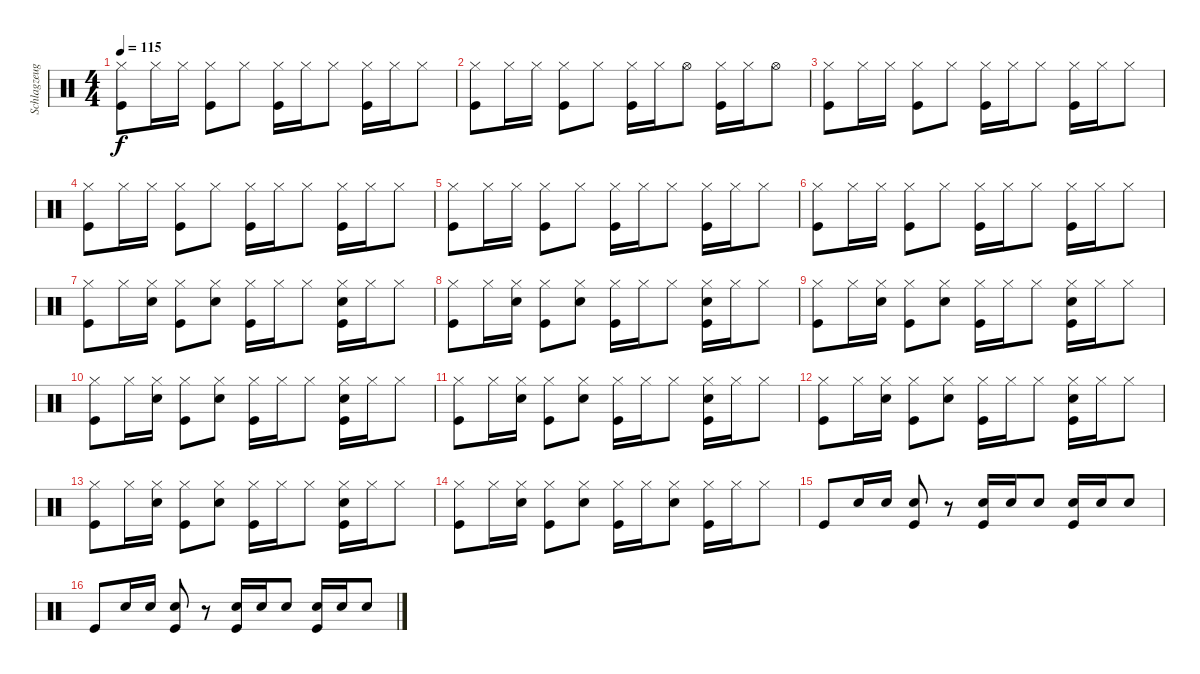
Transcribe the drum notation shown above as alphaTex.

\track ("Schlagzeug" "Schlagzeug") {instrument percussion}
\staff {score}
\articulation defaults
\ts (4 4)
\tempo 115
\clef neutral
\ks c
("Kick (hit)" "Hi-Hat (closed)").8{dy f} "Hi-Hat (closed)".16 "Hi-Hat (closed)".16 ("Kick (hit)" "Hi-Hat (closed)").8 "Hi-Hat (closed)".8 ("Kick (hit)" "Hi-Hat (closed)").16 "Hi-Hat (closed)".16 "Hi-Hat (closed)".8 ("Kick (hit)" "Hi-Hat (closed)").16 "Hi-Hat (closed)".16 "Hi-Hat (closed)".8 |
("Kick (hit)" "Hi-Hat (closed)").8 "Hi-Hat (closed)".16 "Hi-Hat (closed)".16 ("Kick (hit)" "Hi-Hat (closed)").8 "Hi-Hat (closed)".8 ("Kick (hit)" "Hi-Hat (closed)").16 "Hi-Hat (closed)".16 "Hi-Hat (open)".8 ("Kick (hit)" "Hi-Hat (closed)").16 "Hi-Hat (closed)".16 "Hi-Hat (open)".8 |
("Kick (hit)" "Hi-Hat (closed)").8 "Hi-Hat (closed)".16 "Hi-Hat (closed)".16 ("Kick (hit)" "Hi-Hat (closed)").8 "Hi-Hat (closed)".8 ("Kick (hit)" "Hi-Hat (closed)").16 "Hi-Hat (closed)".16 "Hi-Hat (closed)".8 ("Kick (hit)" "Hi-Hat (closed)").16 "Hi-Hat (closed)".16 "Hi-Hat (closed)".8 |
("Kick (hit)" "Hi-Hat (closed)").8 "Hi-Hat (closed)".16 "Hi-Hat (closed)".16 ("Kick (hit)" "Hi-Hat (closed)").8 "Hi-Hat (closed)".8 ("Kick (hit)" "Hi-Hat (closed)").16 "Hi-Hat (closed)".16 "Hi-Hat (closed)".8 ("Kick (hit)" "Hi-Hat (closed)").16 "Hi-Hat (closed)".16 "Hi-Hat (closed)".8 |
("Kick (hit)" "Hi-Hat (closed)").8 "Hi-Hat (closed)".16 "Hi-Hat (closed)".16 ("Kick (hit)" "Hi-Hat (closed)").8 "Hi-Hat (closed)".8 ("Kick (hit)" "Hi-Hat (closed)").16 "Hi-Hat (closed)".16 "Hi-Hat (closed)".8 ("Kick (hit)" "Hi-Hat (closed)").16 "Hi-Hat (closed)".16 "Hi-Hat (closed)".8 |
("Kick (hit)" "Hi-Hat (closed)").8 "Hi-Hat (closed)".16 "Hi-Hat (closed)".16 ("Kick (hit)" "Hi-Hat (closed)").8 "Hi-Hat (closed)".8 ("Kick (hit)" "Hi-Hat (closed)").16 "Hi-Hat (closed)".16 "Hi-Hat (closed)".8 ("Kick (hit)" "Hi-Hat (closed)").16 "Hi-Hat (closed)".16 "Hi-Hat (closed)".8 |
("Kick (hit)" "Hi-Hat (closed)").8 "Hi-Hat (closed)".16 ("Snare (hit) 2" "Hi-Hat (closed)").16 ("Kick (hit)" "Hi-Hat (closed)").8 ("Snare (hit) 2" "Hi-Hat (closed)").8 ("Kick (hit)" "Hi-Hat (closed)").16 "Hi-Hat (closed)".16 "Hi-Hat (closed)".8 ("Kick (hit)" "Snare (hit) 2" "Hi-Hat (closed)").16 "Hi-Hat (closed)".16 "Hi-Hat (closed)".8 |
("Kick (hit)" "Hi-Hat (closed)").8 "Hi-Hat (closed)".16 ("Snare (hit) 2" "Hi-Hat (closed)").16 ("Kick (hit)" "Hi-Hat (closed)").8 ("Snare (hit) 2" "Hi-Hat (closed)").8 ("Kick (hit)" "Hi-Hat (closed)").16 "Hi-Hat (closed)".16 "Hi-Hat (closed)".8 ("Kick (hit)" "Snare (hit) 2" "Hi-Hat (closed)").16 "Hi-Hat (closed)".16 "Hi-Hat (closed)".8 |
("Kick (hit)" "Hi-Hat (closed)").8 "Hi-Hat (closed)".16 ("Snare (hit) 2" "Hi-Hat (closed)").16 ("Kick (hit)" "Hi-Hat (closed)").8 ("Snare (hit) 2" "Hi-Hat (closed)").8 ("Kick (hit)" "Hi-Hat (closed)").16 "Hi-Hat (closed)".16 "Hi-Hat (closed)".8 ("Kick (hit)" "Snare (hit) 2" "Hi-Hat (closed)").16 "Hi-Hat (closed)".16 "Hi-Hat (closed)".8 |
("Kick (hit)" "Hi-Hat (closed)").8 "Hi-Hat (closed)".16 ("Snare (hit) 2" "Hi-Hat (closed)").16 ("Kick (hit)" "Hi-Hat (closed)").8 ("Snare (hit) 2" "Hi-Hat (closed)").8 ("Kick (hit)" "Hi-Hat (closed)").16 "Hi-Hat (closed)".16 "Hi-Hat (closed)".8 ("Kick (hit)" "Snare (hit) 2" "Hi-Hat (closed)").16 "Hi-Hat (closed)".16 "Hi-Hat (closed)".8 |
("Kick (hit)" "Hi-Hat (closed)").8 "Hi-Hat (closed)".16 ("Snare (hit) 2" "Hi-Hat (closed)").16 ("Kick (hit)" "Hi-Hat (closed)").8 ("Snare (hit) 2" "Hi-Hat (closed)").8 ("Kick (hit)" "Hi-Hat (closed)").16 "Hi-Hat (closed)".16 "Hi-Hat (closed)".8 ("Kick (hit)" "Snare (hit) 2" "Hi-Hat (closed)").16 "Hi-Hat (closed)".16 "Hi-Hat (closed)".8 |
("Kick (hit)" "Hi-Hat (closed)").8 "Hi-Hat (closed)".16 ("Snare (hit) 2" "Hi-Hat (closed)").16 ("Kick (hit)" "Hi-Hat (closed)").8 ("Snare (hit) 2" "Hi-Hat (closed)").8 ("Kick (hit)" "Hi-Hat (closed)").16 "Hi-Hat (closed)".16 "Hi-Hat (closed)".8 ("Kick (hit)" "Snare (hit) 2" "Hi-Hat (closed)").16 "Hi-Hat (closed)".16 "Hi-Hat (closed)".8 |
("Kick (hit)" "Hi-Hat (closed)").8 "Hi-Hat (closed)".16 ("Snare (hit) 2" "Hi-Hat (closed)").16 ("Kick (hit)" "Hi-Hat (closed)").8 ("Snare (hit) 2" "Hi-Hat (closed)").8 ("Kick (hit)" "Hi-Hat (closed)").16 "Hi-Hat (closed)".16 "Hi-Hat (closed)".8 ("Kick (hit)" "Snare (hit) 2" "Hi-Hat (closed)").16 "Hi-Hat (closed)".16 "Hi-Hat (closed)".8 |
("Kick (hit)" "Hi-Hat (closed)").8 "Hi-Hat (closed)".16 ("Snare (hit) 2" "Hi-Hat (closed)").16 ("Kick (hit)" "Hi-Hat (closed)").8 ("Snare (hit) 2" "Hi-Hat (closed)").8 ("Kick (hit)" "Hi-Hat (closed)").16 "Hi-Hat (closed)".16 ("Snare (hit) 2" "Hi-Hat (closed)").8 ("Kick (hit)" "Hi-Hat (closed)").16 "Hi-Hat (closed)".16 "Hi-Hat (closed)".8 |
"Kick (hit)".8 "Snare (hit) 2".16 "Snare (hit) 2".16 ("Kick (hit)" "Snare (hit) 2").8 r.8 ("Kick (hit)" "Snare (hit) 2").16 "Snare (hit) 2".16 "Snare (hit) 2".8 ("Kick (hit)" "Snare (hit) 2").16 "Snare (hit) 2".16 "Snare (hit) 2".8 |
"Kick (hit)".8 "Snare (hit) 2".16 "Snare (hit) 2".16 ("Kick (hit)" "Snare (hit) 2").8 r.8 ("Kick (hit)" "Snare (hit) 2").16 "Snare (hit) 2".16 "Snare (hit) 2".8 ("Kick (hit)" "Snare (hit) 2").16 "Snare (hit) 2".16 "Snare (hit) 2".8
